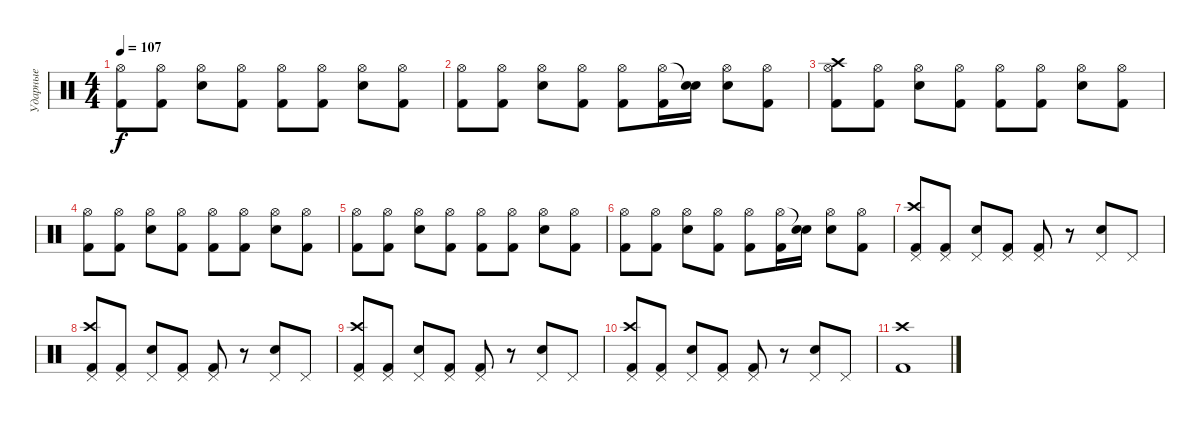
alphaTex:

\track ("Ударные" "Ударные") {instrument percussion}
\staff {score}
\articulation defaults
\ts (4 4)
\tempo 107
\clef neutral
\ks c
("Kick (hit) 2" "Hi-Hat (open)").8{dy f} ("Kick (hit) 2" "Hi-Hat (open)").8 ("Snare (hit) 2" "Hi-Hat (open)").8 ("Kick (hit) 2" "Hi-Hat (open)").8 ("Kick (hit) 2" "Hi-Hat (open)").8 ("Kick (hit) 2" "Hi-Hat (open)").8 ("Snare (hit) 2" "Hi-Hat (open)").8 ("Kick (hit) 2" "Hi-Hat (open)").8 |
("Kick (hit) 2" "Hi-Hat (open)").8 ("Kick (hit) 2" "Hi-Hat (open)").8 ("Snare (hit) 2" "Hi-Hat (open)").8 ("Kick (hit) 2" "Hi-Hat (open)").8 ("Kick (hit) 2" "Hi-Hat (open)").8 ("Kick (hit) 2" "Hi-Hat (open)").16 ("Snare (hit) 2" "Snare (hit)"{t}).16 ("Snare (hit) 2" "Hi-Hat (open)").8 ("Kick (hit) 2" "Hi-Hat (open)").8 |
("Kick (hit) 2" "Crash high (hit)" "Hi-Hat (open)").8 ("Kick (hit) 2" "Hi-Hat (open)").8 ("Snare (hit) 2" "Hi-Hat (open)").8 ("Kick (hit) 2" "Hi-Hat (open)").8 ("Kick (hit) 2" "Hi-Hat (open)").8 ("Kick (hit) 2" "Hi-Hat (open)").8 ("Snare (hit) 2" "Hi-Hat (open)").8 ("Kick (hit) 2" "Hi-Hat (open)").8 |
("Kick (hit) 2" "Hi-Hat (open)").8 ("Kick (hit) 2" "Hi-Hat (open)").8 ("Snare (hit) 2" "Hi-Hat (open)").8 ("Kick (hit) 2" "Hi-Hat (open)").8 ("Kick (hit) 2" "Hi-Hat (open)").8 ("Kick (hit) 2" "Hi-Hat (open)").8 ("Snare (hit) 2" "Hi-Hat (open)").8 ("Kick (hit) 2" "Hi-Hat (open)").8 |
("Kick (hit) 2" "Hi-Hat (open)").8 ("Kick (hit) 2" "Hi-Hat (open)").8 ("Snare (hit) 2" "Hi-Hat (open)").8 ("Kick (hit) 2" "Hi-Hat (open)").8 ("Kick (hit) 2" "Hi-Hat (open)").8 ("Kick (hit) 2" "Hi-Hat (open)").8 ("Snare (hit) 2" "Hi-Hat (open)").8 ("Kick (hit) 2" "Hi-Hat (open)").8 |
("Kick (hit) 2" "Hi-Hat (open)").8 ("Kick (hit) 2" "Hi-Hat (open)").8 ("Snare (hit) 2" "Hi-Hat (open)").8 ("Kick (hit) 2" "Hi-Hat (open)").8 ("Kick (hit) 2" "Hi-Hat (open)").8 ("Kick (hit) 2" "Hi-Hat (open)").16 ("Snare (hit) 2" "Snare (hit)"{t}).16 ("Snare (hit) 2" "Hi-Hat (open)").8 ("Kick (hit) 2" "Hi-Hat (open)").8 |
("Kick (hit) 2" "Crash high (hit)" "Pedal Hi-Hat (hit)").8 ("Kick (hit) 2" "Pedal Hi-Hat (hit)").8 ("Snare (hit) 2" "Pedal Hi-Hat (hit)").8 ("Kick (hit) 2" "Pedal Hi-Hat (hit)").8 ("Kick (hit) 2" "Pedal Hi-Hat (hit)").8 r.8 ("Snare (hit) 2" "Pedal Hi-Hat (hit)").8 "Pedal Hi-Hat (hit)".8 |
("Kick (hit) 2" "Crash high (hit)" "Pedal Hi-Hat (hit)").8 ("Kick (hit) 2" "Pedal Hi-Hat (hit)").8 ("Snare (hit) 2" "Pedal Hi-Hat (hit)").8 ("Kick (hit) 2" "Pedal Hi-Hat (hit)").8 ("Kick (hit) 2" "Pedal Hi-Hat (hit)").8 r.8 ("Snare (hit) 2" "Pedal Hi-Hat (hit)").8 "Pedal Hi-Hat (hit)".8 |
("Kick (hit) 2" "Crash high (hit)" "Pedal Hi-Hat (hit)").8 ("Kick (hit) 2" "Pedal Hi-Hat (hit)").8 ("Snare (hit) 2" "Pedal Hi-Hat (hit)").8 ("Kick (hit) 2" "Pedal Hi-Hat (hit)").8 ("Kick (hit) 2" "Pedal Hi-Hat (hit)").8 r.8 ("Snare (hit) 2" "Pedal Hi-Hat (hit)").8 "Pedal Hi-Hat (hit)".8 |
("Kick (hit) 2" "Crash high (hit)" "Pedal Hi-Hat (hit)").8 ("Kick (hit) 2" "Pedal Hi-Hat (hit)").8 ("Snare (hit) 2" "Pedal Hi-Hat (hit)").8 ("Kick (hit) 2" "Pedal Hi-Hat (hit)").8 ("Kick (hit) 2" "Pedal Hi-Hat (hit)").8 r.8 ("Snare (hit) 2" "Pedal Hi-Hat (hit)").8 "Pedal Hi-Hat (hit)".8 |
("Kick (hit) 2" "Crash high (hit)").1
